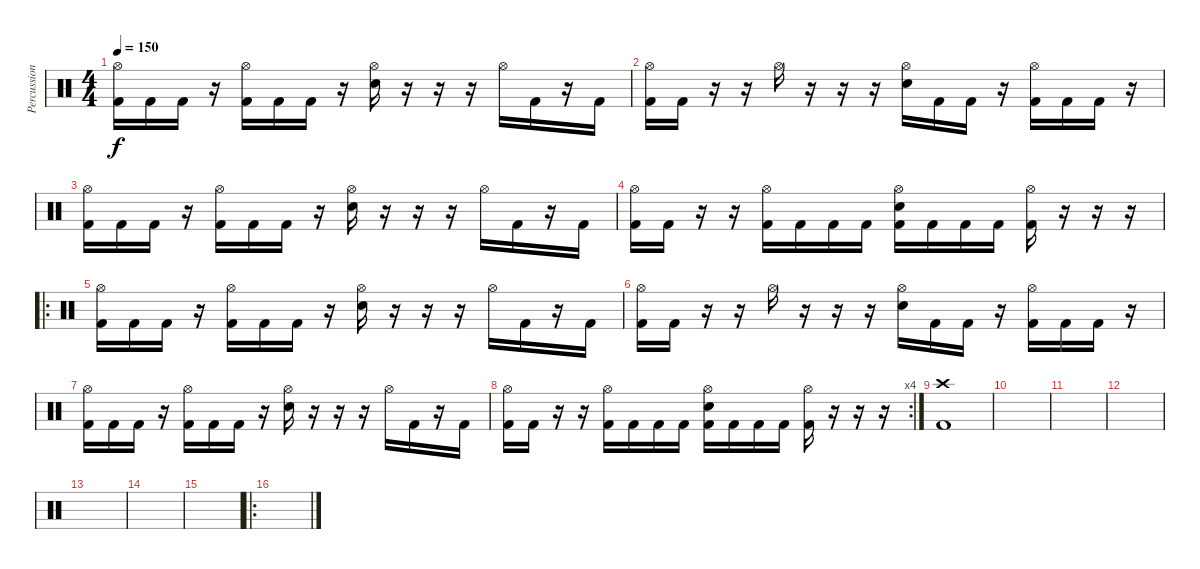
\track ("Percussion" "Percussion") {instrument percussion}
\staff {score}
\articulation defaults
\ts (4 4)
\tempo 150
\clef neutral
\ks c
("Hi-Hat (open)" "Kick (hit) 2").16{dy f} "Kick (hit) 2".16 "Kick (hit) 2".16 r.16 ("Hi-Hat (open)" "Kick (hit) 2").16 "Kick (hit) 2".16 "Kick (hit) 2".16 r.16 ("Hi-Hat (open)" "Electric Snare (hit)").16 r.16 r.16 r.16 "Hi-Hat (open)".16 "Kick (hit) 2".16 r.16 "Kick (hit) 2".16 |
("Hi-Hat (open)" "Kick (hit) 2").16 "Kick (hit) 2".16 r.16 r.16 "Hi-Hat (open)".16 r.16 r.16 r.16 ("Hi-Hat (open)" "Electric Snare (hit)").16 "Kick (hit) 2".16 "Kick (hit) 2".16 r.16 ("Hi-Hat (open)" "Kick (hit) 2").16 "Kick (hit) 2".16 "Kick (hit) 2".16 r.16 |
("Hi-Hat (open)" "Kick (hit) 2").16 "Kick (hit) 2".16 "Kick (hit) 2".16 r.16 ("Hi-Hat (open)" "Kick (hit) 2").16 "Kick (hit) 2".16 "Kick (hit) 2".16 r.16 ("Hi-Hat (open)" "Electric Snare (hit)").16 r.16 r.16 r.16 "Hi-Hat (open)".16 "Kick (hit) 2".16 r.16 "Kick (hit) 2".16 |
("Hi-Hat (open)" "Kick (hit) 2").16 "Kick (hit) 2".16 r.16 r.16 ("Hi-Hat (open)" "Kick (hit) 2").16 "Kick (hit) 2".16 "Kick (hit) 2".16 "Kick (hit) 2".16 ("Hi-Hat (open)" "Electric Snare (hit)" "Kick (hit) 2").16 "Kick (hit) 2".16 "Kick (hit) 2".16 "Kick (hit) 2".16 ("Hi-Hat (open)" "Kick (hit) 2").16 r.16 r.16 r.16 |
\ro
("Hi-Hat (open)" "Kick (hit) 2").16 "Kick (hit) 2".16 "Kick (hit) 2".16 r.16 ("Hi-Hat (open)" "Kick (hit) 2").16 "Kick (hit) 2".16 "Kick (hit) 2".16 r.16 ("Hi-Hat (open)" "Electric Snare (hit)").16 r.16 r.16 r.16 "Hi-Hat (open)".16 "Kick (hit) 2".16 r.16 "Kick (hit) 2".16 |
("Hi-Hat (open)" "Kick (hit) 2").16 "Kick (hit) 2".16 r.16 r.16 "Hi-Hat (open)".16 r.16 r.16 r.16 ("Hi-Hat (open)" "Electric Snare (hit)").16 "Kick (hit) 2".16 "Kick (hit) 2".16 r.16 ("Hi-Hat (open)" "Kick (hit) 2").16 "Kick (hit) 2".16 "Kick (hit) 2".16 r.16 |
("Hi-Hat (open)" "Kick (hit) 2").16 "Kick (hit) 2".16 "Kick (hit) 2".16 r.16 ("Hi-Hat (open)" "Kick (hit) 2").16 "Kick (hit) 2".16 "Kick (hit) 2".16 r.16 ("Hi-Hat (open)" "Electric Snare (hit)").16 r.16 r.16 r.16 "Hi-Hat (open)".16 "Kick (hit) 2".16 r.16 "Kick (hit) 2".16 |
\rc 4
("Hi-Hat (open)" "Kick (hit) 2").16 "Kick (hit) 2".16 r.16 r.16 ("Hi-Hat (open)" "Kick (hit) 2").16 "Kick (hit) 2".16 "Kick (hit) 2".16 "Kick (hit) 2".16 ("Hi-Hat (open)" "Electric Snare (hit)" "Kick (hit) 2").16 "Kick (hit) 2".16 "Kick (hit) 2".16 "Kick (hit) 2".16 ("Hi-Hat (open)" "Kick (hit) 2").16 r.16 r.16 r.16 |
("Crash high (hit)" "Kick (hit) 2").1 |
|
|
|
|
|
|
\ro
